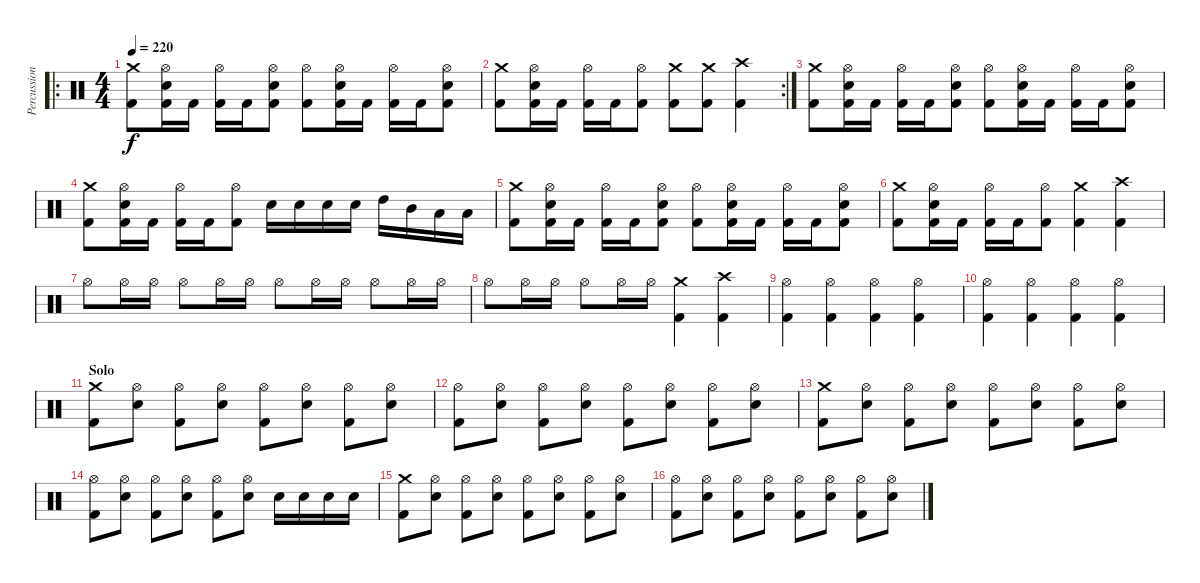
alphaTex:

\track ("Percussion" "Percussion") {instrument percussion}
\staff {score}
\articulation defaults
\ro
\ts (4 4)
\tempo 220
\clef neutral
\ks c
("Crash medium (hit)" "Kick (hit) 2").8{dy f} ("Hi-Hat (open)" "Snare (hit) 2" "Kick (hit) 2").16 "Kick (hit) 2".16 ("Hi-Hat (open)" "Kick (hit) 2").16 "Kick (hit) 2".16 ("Hi-Hat (open)" "Snare (hit) 2" "Kick (hit) 2").8 ("Hi-Hat (open)" "Kick (hit) 2").8 ("Hi-Hat (open)" "Snare (hit) 2" "Kick (hit) 2").16 "Kick (hit) 2".16 ("Hi-Hat (open)" "Kick (hit) 2").16 "Kick (hit) 2".16 ("Hi-Hat (open)" "Snare (hit) 2" "Kick (hit) 2").8 |
\rc 2
("Crash medium (hit)" "Kick (hit) 2").8 ("Hi-Hat (open)" "Snare (hit) 2" "Kick (hit) 2").16 "Kick (hit) 2".16 ("Hi-Hat (open)" "Kick (hit) 2").16 "Kick (hit) 2".16 ("Hi-Hat (open)" "Kick (hit) 2").8 ("Crash medium (hit)" "Kick (hit) 2").8 ("Crash medium (hit)" "Kick (hit) 2").8 ("Crash high (hit)" "Kick (hit) 2").4 |
("Crash medium (hit)" "Kick (hit) 2").8 ("Hi-Hat (open)" "Snare (hit) 2" "Kick (hit) 2").16 "Kick (hit) 2".16 ("Hi-Hat (open)" "Kick (hit) 2").16 "Kick (hit) 2".16 ("Hi-Hat (open)" "Snare (hit) 2" "Kick (hit) 2").8 ("Hi-Hat (open)" "Kick (hit) 2").8 ("Hi-Hat (open)" "Snare (hit) 2" "Kick (hit) 2").16 "Kick (hit) 2".16 ("Hi-Hat (open)" "Kick (hit) 2").16 "Kick (hit) 2".16 ("Hi-Hat (open)" "Snare (hit) 2" "Kick (hit) 2").8 |
("Crash medium (hit)" "Kick (hit) 2").8 ("Hi-Hat (open)" "Snare (hit) 2" "Kick (hit) 2").16 "Kick (hit) 2".16 ("Hi-Hat (open)" "Kick (hit) 2").16 "Kick (hit) 2".16 ("Hi-Hat (open)" "Kick (hit) 2").8 "Snare (hit) 2".16 "Snare (hit) 2".16 "Snare (hit) 2".16 "Snare (hit) 2".16 "High Tom (hit)".16 "Mid Tom (hit)".16 "Low Tom (hit)".16 "Low Tom (hit)".16 |
("Crash medium (hit)" "Kick (hit) 2").8 ("Hi-Hat (open)" "Snare (hit) 2" "Kick (hit) 2").16 "Kick (hit) 2".16 ("Hi-Hat (open)" "Kick (hit) 2").16 "Kick (hit) 2".16 ("Hi-Hat (open)" "Snare (hit) 2" "Kick (hit) 2").8 ("Hi-Hat (open)" "Kick (hit) 2").8 ("Hi-Hat (open)" "Snare (hit) 2" "Kick (hit) 2").16 "Kick (hit) 2".16 ("Hi-Hat (open)" "Kick (hit) 2").16 "Kick (hit) 2".16 ("Hi-Hat (open)" "Snare (hit) 2" "Kick (hit) 2").8 |
("Crash medium (hit)" "Kick (hit) 2").8 ("Hi-Hat (open)" "Snare (hit) 2" "Kick (hit) 2").16 "Kick (hit) 2".16 ("Hi-Hat (open)" "Kick (hit) 2").16 "Kick (hit) 2".16 ("Hi-Hat (open)" "Kick (hit) 2").8 ("Crash medium (hit)" "Kick (hit) 2").4 ("Crash high (hit)" "Kick (hit) 2").4 |
"Hi-Hat (open)".8 "Hi-Hat (open)".16 "Hi-Hat (open)".16 "Hi-Hat (open)".8 "Hi-Hat (open)".16 "Hi-Hat (open)".16 "Hi-Hat (open)".8 "Hi-Hat (open)".16 "Hi-Hat (open)".16 "Hi-Hat (open)".8 "Hi-Hat (open)".16 "Hi-Hat (open)".16 |
"Hi-Hat (open)".8 "Hi-Hat (open)".16 "Hi-Hat (open)".16 "Hi-Hat (open)".8 "Hi-Hat (open)".16 "Hi-Hat (open)".16 ("Kick (hit) 2" "Crash medium (hit)").4 ("Kick (hit) 2" "Crash high (hit)").4 |
("Hi-Hat (open)" "Kick (hit) 2").4 ("Hi-Hat (open)" "Kick (hit) 2").4 ("Hi-Hat (open)" "Kick (hit) 2").4 ("Hi-Hat (open)" "Kick (hit) 2").4 |
("Hi-Hat (open)" "Kick (hit) 2").4 ("Hi-Hat (open)" "Kick (hit) 2").4 ("Hi-Hat (open)" "Kick (hit) 2").4 ("Hi-Hat (open)" "Kick (hit) 2").4 |
\section ("" "Solo")
("Kick (hit) 2" "Crash medium (hit)").8 ("Snare (hit) 2" "Hi-Hat (open)").8 ("Kick (hit) 2" "Hi-Hat (open)").8 ("Snare (hit) 2" "Hi-Hat (open)").8 ("Kick (hit) 2" "Hi-Hat (open)").8 ("Snare (hit) 2" "Hi-Hat (open)").8 ("Kick (hit) 2" "Hi-Hat (open)").8 ("Snare (hit) 2" "Hi-Hat (open)").8 |
("Kick (hit) 2" "Hi-Hat (open)").8 ("Snare (hit) 2" "Hi-Hat (open)").8 ("Kick (hit) 2" "Hi-Hat (open)").8 ("Snare (hit) 2" "Hi-Hat (open)").8 ("Kick (hit) 2" "Hi-Hat (open)").8 ("Snare (hit) 2" "Hi-Hat (open)").8 ("Kick (hit) 2" "Hi-Hat (open)").8 ("Snare (hit) 2" "Hi-Hat (open)").8 |
("Kick (hit) 2" "Crash medium (hit)").8 ("Snare (hit) 2" "Hi-Hat (open)").8 ("Kick (hit) 2" "Hi-Hat (open)").8 ("Snare (hit) 2" "Hi-Hat (open)").8 ("Kick (hit) 2" "Hi-Hat (open)").8 ("Snare (hit) 2" "Hi-Hat (open)").8 ("Kick (hit) 2" "Hi-Hat (open)").8 ("Snare (hit) 2" "Hi-Hat (open)").8 |
("Kick (hit) 2" "Hi-Hat (open)").8 ("Snare (hit) 2" "Hi-Hat (open)").8 ("Kick (hit) 2" "Hi-Hat (open)").8 ("Snare (hit) 2" "Hi-Hat (open)").8 ("Kick (hit) 2" "Hi-Hat (open)").8 ("Snare (hit) 2" "Hi-Hat (open)").8 "Snare (hit) 2".16 "Snare (hit) 2".16 "Snare (hit) 2".16 "Snare (hit) 2".16 |
("Kick (hit) 2" "Crash medium (hit)").8 ("Snare (hit) 2" "Hi-Hat (open)").8 ("Kick (hit) 2" "Hi-Hat (open)").8 ("Snare (hit) 2" "Hi-Hat (open)").8 ("Kick (hit) 2" "Hi-Hat (open)").8 ("Snare (hit) 2" "Hi-Hat (open)").8 ("Kick (hit) 2" "Hi-Hat (open)").8 ("Snare (hit) 2" "Hi-Hat (open)").8 |
("Kick (hit) 2" "Hi-Hat (open)").8 ("Snare (hit) 2" "Hi-Hat (open)").8 ("Kick (hit) 2" "Hi-Hat (open)").8 ("Snare (hit) 2" "Hi-Hat (open)").8 ("Kick (hit) 2" "Hi-Hat (open)").8 ("Snare (hit) 2" "Hi-Hat (open)").8 ("Kick (hit) 2" "Hi-Hat (open)").8 ("Snare (hit) 2" "Hi-Hat (open)").8
